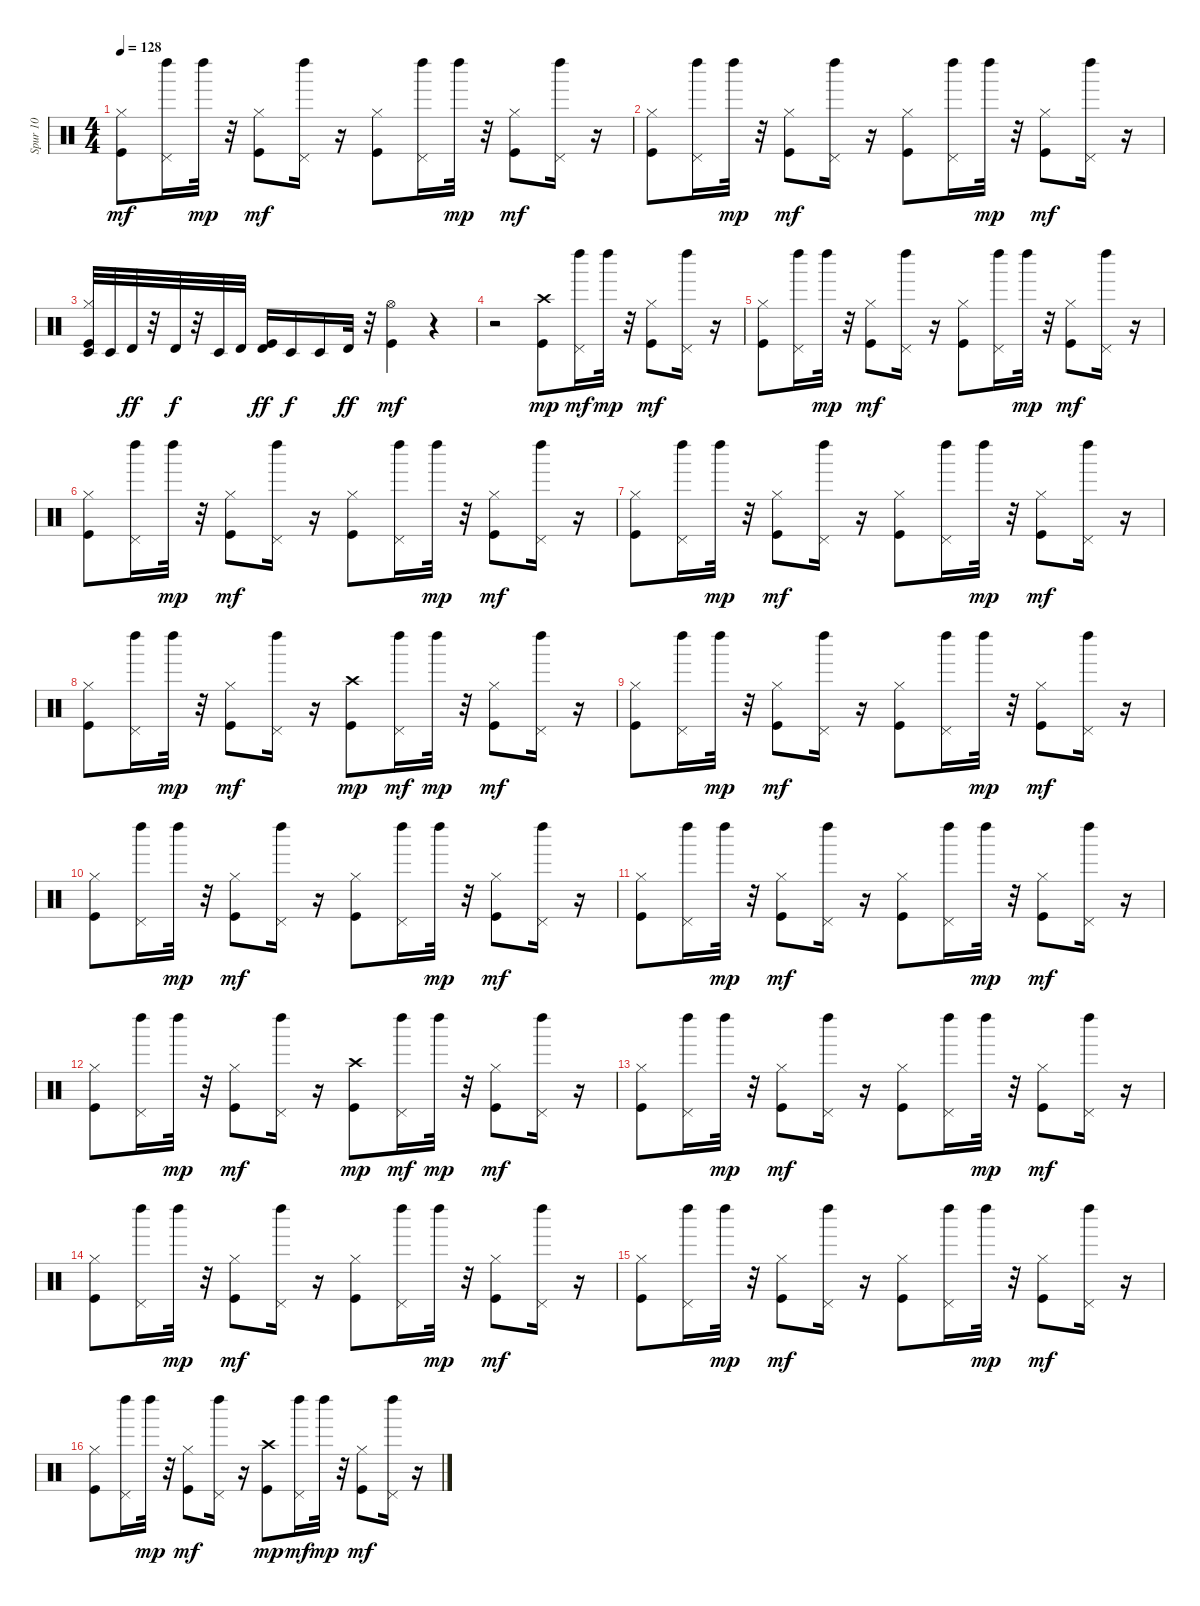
\track ("Spur 10" "Spur 10") {instrument percussion}
\staff {score}
\articulation defaults
\ts (4 4)
\tempo 128
\clef neutral
\ks c
("Kick (hit)" "Hi-Hat (closed)").8{dy mf} ("Pedal Hi-Hat (hit)" "Left Maraca (hit)").16 "Left Maraca (hit)".32{dy mp} r.32 ("Kick (hit)" "Hi-Hat (closed)").8{dy mf} ("Pedal Hi-Hat (hit)" "Left Maraca (hit)").16 r.16 ("Kick (hit)" "Hi-Hat (closed)").8 ("Pedal Hi-Hat (hit)" "Left Maraca (hit)").16 "Left Maraca (hit)".32{dy mp} r.32 ("Kick (hit)" "Hi-Hat (closed)").8{dy mf} ("Pedal Hi-Hat (hit)" "Left Maraca (hit)").16 r.16 |
("Kick (hit)" "Hi-Hat (closed)").8 ("Pedal Hi-Hat (hit)" "Left Maraca (hit)").16 "Left Maraca (hit)".32{dy mp} r.32 ("Kick (hit)" "Hi-Hat (closed)").8{dy mf} ("Pedal Hi-Hat (hit)" "Left Maraca (hit)").16 r.16 ("Kick (hit)" "Hi-Hat (closed)").8 ("Pedal Hi-Hat (hit)" "Left Maraca (hit)").16 "Left Maraca (hit)".32{dy mp} r.32 ("Kick (hit)" "Hi-Hat (closed)").8{dy mf} ("Pedal Hi-Hat (hit)" "Left Maraca (hit)").16 r.16 |
("Kick (hit)" "Hi-Hat (closed)" "Timbale low (hit)").32 "Timbale low (hit)".32 "Timbale high (hit)".32{dy ff} r.32 "Timbale high (hit)".32{dy f} r.32 "Timbale low (hit)".32 "Timbale high (hit)".32 ("Kick (hit)" "Timbale high (hit)").16{dy ff} "Timbale low (hit)".16{dy f} "Timbale low (hit)".16 "Timbale high (hit)".32{dy ff} r.32 ("Kick (hit)" "Hi-Hat (open)").4{dy mf} r.4 |
r.2 ("Kick (hit)" "Crash high (hit)").8{dy mp} ("Pedal Hi-Hat (hit)" "Left Maraca (hit)").16{dy mf} "Left Maraca (hit)".32{dy mp} r.32 ("Kick (hit)" "Hi-Hat (closed)").8{dy mf} ("Pedal Hi-Hat (hit)" "Left Maraca (hit)").16 r.16 |
("Kick (hit)" "Hi-Hat (closed)").8 ("Pedal Hi-Hat (hit)" "Left Maraca (hit)").16 "Left Maraca (hit)".32{dy mp} r.32 ("Kick (hit)" "Hi-Hat (closed)").8{dy mf} ("Pedal Hi-Hat (hit)" "Left Maraca (hit)").16 r.16 ("Kick (hit)" "Hi-Hat (closed)").8 ("Pedal Hi-Hat (hit)" "Left Maraca (hit)").16 "Left Maraca (hit)".32{dy mp} r.32 ("Kick (hit)" "Hi-Hat (closed)").8{dy mf} ("Pedal Hi-Hat (hit)" "Left Maraca (hit)").16 r.16 |
("Kick (hit)" "Hi-Hat (closed)").8 ("Pedal Hi-Hat (hit)" "Left Maraca (hit)").16 "Left Maraca (hit)".32{dy mp} r.32 ("Kick (hit)" "Hi-Hat (closed)").8{dy mf} ("Pedal Hi-Hat (hit)" "Left Maraca (hit)").16 r.16 ("Kick (hit)" "Hi-Hat (closed)").8 ("Pedal Hi-Hat (hit)" "Left Maraca (hit)").16 "Left Maraca (hit)".32{dy mp} r.32 ("Kick (hit)" "Hi-Hat (closed)").8{dy mf} ("Pedal Hi-Hat (hit)" "Left Maraca (hit)").16 r.16 |
("Kick (hit)" "Hi-Hat (closed)").8 ("Pedal Hi-Hat (hit)" "Left Maraca (hit)").16 "Left Maraca (hit)".32{dy mp} r.32 ("Kick (hit)" "Hi-Hat (closed)").8{dy mf} ("Pedal Hi-Hat (hit)" "Left Maraca (hit)").16 r.16 ("Kick (hit)" "Hi-Hat (closed)").8 ("Pedal Hi-Hat (hit)" "Left Maraca (hit)").16 "Left Maraca (hit)".32{dy mp} r.32 ("Kick (hit)" "Hi-Hat (closed)").8{dy mf} ("Pedal Hi-Hat (hit)" "Left Maraca (hit)").16 r.16 |
("Kick (hit)" "Hi-Hat (closed)").8 ("Pedal Hi-Hat (hit)" "Left Maraca (hit)").16 "Left Maraca (hit)".32{dy mp} r.32 ("Kick (hit)" "Hi-Hat (closed)").8{dy mf} ("Pedal Hi-Hat (hit)" "Left Maraca (hit)").16 r.16 ("Kick (hit)" "Crash high (hit)").8{dy mp} ("Pedal Hi-Hat (hit)" "Left Maraca (hit)").16{dy mf} "Left Maraca (hit)".32{dy mp} r.32 ("Kick (hit)" "Hi-Hat (closed)").8{dy mf} ("Pedal Hi-Hat (hit)" "Left Maraca (hit)").16 r.16 |
("Kick (hit)" "Hi-Hat (closed)").8 ("Pedal Hi-Hat (hit)" "Left Maraca (hit)").16 "Left Maraca (hit)".32{dy mp} r.32 ("Kick (hit)" "Hi-Hat (closed)").8{dy mf} ("Pedal Hi-Hat (hit)" "Left Maraca (hit)").16 r.16 ("Kick (hit)" "Hi-Hat (closed)").8 ("Pedal Hi-Hat (hit)" "Left Maraca (hit)").16 "Left Maraca (hit)".32{dy mp} r.32 ("Kick (hit)" "Hi-Hat (closed)").8{dy mf} ("Pedal Hi-Hat (hit)" "Left Maraca (hit)").16 r.16 |
("Kick (hit)" "Hi-Hat (closed)").8 ("Pedal Hi-Hat (hit)" "Left Maraca (hit)").16 "Left Maraca (hit)".32{dy mp} r.32 ("Kick (hit)" "Hi-Hat (closed)").8{dy mf} ("Pedal Hi-Hat (hit)" "Left Maraca (hit)").16 r.16 ("Kick (hit)" "Hi-Hat (closed)").8 ("Pedal Hi-Hat (hit)" "Left Maraca (hit)").16 "Left Maraca (hit)".32{dy mp} r.32 ("Kick (hit)" "Hi-Hat (closed)").8{dy mf} ("Pedal Hi-Hat (hit)" "Left Maraca (hit)").16 r.16 |
("Kick (hit)" "Hi-Hat (closed)").8 ("Pedal Hi-Hat (hit)" "Left Maraca (hit)").16 "Left Maraca (hit)".32{dy mp} r.32 ("Kick (hit)" "Hi-Hat (closed)").8{dy mf} ("Pedal Hi-Hat (hit)" "Left Maraca (hit)").16 r.16 ("Kick (hit)" "Hi-Hat (closed)").8 ("Pedal Hi-Hat (hit)" "Left Maraca (hit)").16 "Left Maraca (hit)".32{dy mp} r.32 ("Kick (hit)" "Hi-Hat (closed)").8{dy mf} ("Pedal Hi-Hat (hit)" "Left Maraca (hit)").16 r.16 |
("Kick (hit)" "Hi-Hat (closed)").8 ("Pedal Hi-Hat (hit)" "Left Maraca (hit)").16 "Left Maraca (hit)".32{dy mp} r.32 ("Kick (hit)" "Hi-Hat (closed)").8{dy mf} ("Pedal Hi-Hat (hit)" "Left Maraca (hit)").16 r.16 ("Kick (hit)" "Crash high (hit)").8{dy mp} ("Pedal Hi-Hat (hit)" "Left Maraca (hit)").16{dy mf} "Left Maraca (hit)".32{dy mp} r.32 ("Kick (hit)" "Hi-Hat (closed)").8{dy mf} ("Pedal Hi-Hat (hit)" "Left Maraca (hit)").16 r.16 |
("Kick (hit)" "Hi-Hat (closed)").8 ("Pedal Hi-Hat (hit)" "Left Maraca (hit)").16 "Left Maraca (hit)".32{dy mp} r.32 ("Kick (hit)" "Hi-Hat (closed)").8{dy mf} ("Pedal Hi-Hat (hit)" "Left Maraca (hit)").16 r.16 ("Kick (hit)" "Hi-Hat (closed)").8 ("Pedal Hi-Hat (hit)" "Left Maraca (hit)").16 "Left Maraca (hit)".32{dy mp} r.32 ("Kick (hit)" "Hi-Hat (closed)").8{dy mf} ("Pedal Hi-Hat (hit)" "Left Maraca (hit)").16 r.16 |
("Kick (hit)" "Hi-Hat (closed)").8 ("Pedal Hi-Hat (hit)" "Left Maraca (hit)").16 "Left Maraca (hit)".32{dy mp} r.32 ("Kick (hit)" "Hi-Hat (closed)").8{dy mf} ("Pedal Hi-Hat (hit)" "Left Maraca (hit)").16 r.16 ("Kick (hit)" "Hi-Hat (closed)").8 ("Pedal Hi-Hat (hit)" "Left Maraca (hit)").16 "Left Maraca (hit)".32{dy mp} r.32 ("Kick (hit)" "Hi-Hat (closed)").8{dy mf} ("Pedal Hi-Hat (hit)" "Left Maraca (hit)").16 r.16 |
("Kick (hit)" "Hi-Hat (closed)").8 ("Pedal Hi-Hat (hit)" "Left Maraca (hit)").16 "Left Maraca (hit)".32{dy mp} r.32 ("Kick (hit)" "Hi-Hat (closed)").8{dy mf} ("Pedal Hi-Hat (hit)" "Left Maraca (hit)").16 r.16 ("Kick (hit)" "Hi-Hat (closed)").8 ("Pedal Hi-Hat (hit)" "Left Maraca (hit)").16 "Left Maraca (hit)".32{dy mp} r.32 ("Kick (hit)" "Hi-Hat (closed)").8{dy mf} ("Pedal Hi-Hat (hit)" "Left Maraca (hit)").16 r.16 |
("Kick (hit)" "Hi-Hat (closed)").8 ("Pedal Hi-Hat (hit)" "Left Maraca (hit)").16 "Left Maraca (hit)".32{dy mp} r.32 ("Kick (hit)" "Hi-Hat (closed)").8{dy mf} ("Pedal Hi-Hat (hit)" "Left Maraca (hit)").16 r.16 ("Kick (hit)" "Crash high (hit)").8{dy mp} ("Pedal Hi-Hat (hit)" "Left Maraca (hit)").16{dy mf} "Left Maraca (hit)".32{dy mp} r.32 ("Kick (hit)" "Hi-Hat (closed)").8{dy mf} ("Pedal Hi-Hat (hit)" "Left Maraca (hit)").16 r.16
